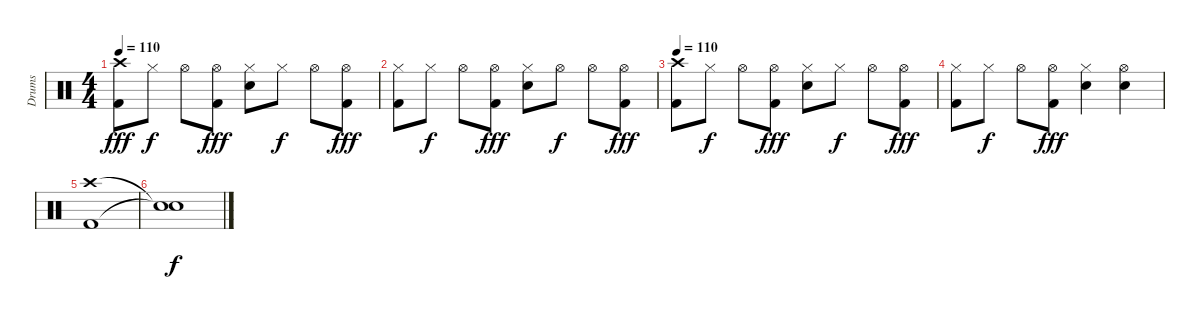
\track ("Drums" "Drums") {instrument percussion}
\staff {score}
\articulation defaults
\ts (4 4)
\tempo 110
\clef neutral
\ks c
("Crash high (hit)" "Kick (hit) 2").8{dy fff} "Hi-Hat (closed)".8{dy f} "Hi-Hat (open)".8 ("Hi-Hat (open)" "Kick (hit) 2").8{dy fff} ("Hi-Hat (closed)" "Snare (hit) 2").8 "Hi-Hat (closed)".8{dy f} "Hi-Hat (open)".8 ("Hi-Hat (open)" "Kick (hit) 2").8{dy fff} |
("Hi-Hat (closed)" "Kick (hit) 2").8 "Hi-Hat (closed)".8{dy f} "Hi-Hat (open)".8 ("Hi-Hat (open)" "Kick (hit) 2").8{dy fff} ("Hi-Hat (closed)" "Snare (hit) 2").8 "Hi-Hat (open)".8{dy f} "Hi-Hat (open)".8 ("Hi-Hat (open)" "Kick (hit) 2").8{dy fff} |
\tempo 110
("Crash high (hit)" "Kick (hit) 2").8 "Hi-Hat (closed)".8{dy f} "Hi-Hat (open)".8 ("Hi-Hat (open)" "Kick (hit) 2").8{dy fff} ("Hi-Hat (closed)" "Snare (hit) 2").8 "Hi-Hat (closed)".8{dy f} "Hi-Hat (open)".8 ("Hi-Hat (open)" "Kick (hit) 2").8{dy fff} |
("Hi-Hat (closed)" "Kick (hit) 2").8 "Hi-Hat (closed)".8{dy f} "Hi-Hat (open)".8 ("Hi-Hat (open)" "Kick (hit) 2").8{dy fff} ("Hi-Hat (closed)" "Snare (hit) 2").4 ("Hi-Hat (open)" "Snare (hit) 2").4 |
("Crash high (hit)" "Kick (hit) 2").1 |
("Snare (hit)"{t} "Snare (hit)"{t}).1{dy f}
